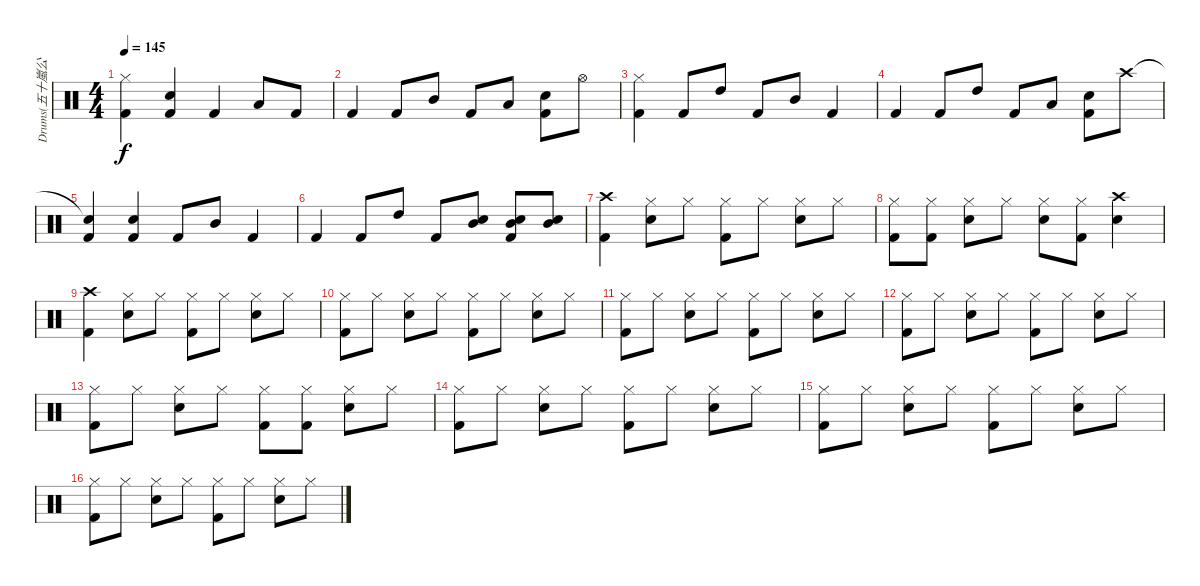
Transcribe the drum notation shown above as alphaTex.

\track ("Drums(五十嵐公太)" "Drums(五十嵐公") {instrument percussion}
\staff {score}
\articulation defaults
\ts (4 4)
\tempo 145
\clef neutral
\ks c
("Hi-Hat (closed)" "Kick (hit) 2").4{dy f} ("Snare (hit) 2" "Kick (hit) 2").4 "Kick (hit) 2".4 "Low Tom (hit)".8 "Kick (hit) 2".8 |
"Kick (hit) 2".4 "Kick (hit) 2".8 "Mid Tom (hit)".8 "Kick (hit) 2".8 "Low Tom (hit)".8 ("Snare (hit) 2" "Kick (hit) 2").8 "Hi-Hat (open)".8 |
("Hi-Hat (closed)" "Kick (hit) 2").4 "Kick (hit) 2".8 "High Tom (hit)".8 "Kick (hit) 2".8 "Mid Tom (hit)".8 "Kick (hit) 2".4 |
"Kick (hit) 2".4 "Kick (hit) 2".8 "High Tom (hit)".8 "Kick (hit) 2".8 "Low Tom (hit)".8 ("Snare (hit) 2" "Kick (hit) 2").8 "Crash high (hit)".8 |
("Snare (hit)"{t} "Kick (hit) 2").4 ("Snare (hit) 2" "Kick (hit) 2").4 "Kick (hit) 2".8 "Mid Tom (hit)".8 "Kick (hit) 2".4 |
"Kick (hit) 2".4 "Kick (hit) 2".8 "High Tom (hit)".8 "Kick (hit) 2".8 ("Snare (hit) 2" "Mid Tom (hit)").8 ("Snare (hit) 2" "Mid Tom (hit)" "Kick (hit) 2").8 ("Mid Tom (hit)" "Snare (hit) 2").8 |
("Crash high (hit)" "Kick (hit) 2").4 ("Hi-Hat (closed)" "Snare (hit) 2").8 "Hi-Hat (closed)".8 ("Hi-Hat (closed)" "Kick (hit) 2").8 "Hi-Hat (closed)".8 ("Hi-Hat (closed)" "Snare (hit) 2").8 "Hi-Hat (closed)".8 |
("Hi-Hat (closed)" "Kick (hit) 2").8 ("Hi-Hat (closed)" "Kick (hit) 2").8 ("Hi-Hat (closed)" "Snare (hit) 2").8 "Hi-Hat (closed)".8 ("Hi-Hat (closed)" "Snare (hit) 2").8 ("Hi-Hat (closed)" "Kick (hit) 2").8 ("Crash high (hit)" "Snare (hit) 2").4 |
("Crash high (hit)" "Kick (hit) 2").4 ("Hi-Hat (closed)" "Snare (hit) 2").8 "Hi-Hat (closed)".8 ("Hi-Hat (closed)" "Kick (hit) 2").8 "Hi-Hat (closed)".8 ("Hi-Hat (closed)" "Snare (hit) 2").8 "Hi-Hat (closed)".8 |
("Hi-Hat (closed)" "Kick (hit) 2").8 "Hi-Hat (closed)".8 ("Hi-Hat (closed)" "Snare (hit) 2").8 "Hi-Hat (closed)".8 ("Hi-Hat (closed)" "Kick (hit) 2").8 "Hi-Hat (closed)".8 ("Hi-Hat (closed)" "Snare (hit) 2").8 "Hi-Hat (closed)".8 |
("Hi-Hat (closed)" "Kick (hit) 2").8 "Hi-Hat (closed)".8 ("Hi-Hat (closed)" "Snare (hit) 2").8 "Hi-Hat (closed)".8 ("Hi-Hat (closed)" "Kick (hit) 2").8 "Hi-Hat (closed)".8 ("Hi-Hat (closed)" "Snare (hit) 2").8 "Hi-Hat (closed)".8 |
("Hi-Hat (closed)" "Kick (hit) 2").8 "Hi-Hat (closed)".8 ("Hi-Hat (closed)" "Snare (hit) 2").8 "Hi-Hat (closed)".8 ("Hi-Hat (closed)" "Kick (hit) 2").8 "Hi-Hat (closed)".8 ("Hi-Hat (closed)" "Snare (hit) 2").8 "Hi-Hat (closed)".8 |
("Hi-Hat (closed)" "Kick (hit) 2").8 "Hi-Hat (closed)".8 ("Hi-Hat (closed)" "Snare (hit) 2").8 "Hi-Hat (closed)".8 ("Hi-Hat (closed)" "Kick (hit) 2").8 ("Hi-Hat (closed)" "Kick (hit) 2").8 ("Hi-Hat (closed)" "Snare (hit) 2").8 "Hi-Hat (closed)".8 |
("Hi-Hat (closed)" "Kick (hit) 2").8 "Hi-Hat (closed)".8 ("Hi-Hat (closed)" "Snare (hit) 2").8 "Hi-Hat (closed)".8 ("Hi-Hat (closed)" "Kick (hit) 2").8 "Hi-Hat (closed)".8 ("Hi-Hat (closed)" "Snare (hit) 2").8 "Hi-Hat (closed)".8 |
("Hi-Hat (closed)" "Kick (hit) 2").8 "Hi-Hat (closed)".8 ("Hi-Hat (closed)" "Snare (hit) 2").8 "Hi-Hat (closed)".8 ("Hi-Hat (closed)" "Kick (hit) 2").8 "Hi-Hat (closed)".8 ("Hi-Hat (closed)" "Snare (hit) 2").8 "Hi-Hat (closed)".8 |
("Hi-Hat (closed)" "Kick (hit) 2").8 "Hi-Hat (closed)".8 ("Hi-Hat (closed)" "Snare (hit) 2").8 "Hi-Hat (closed)".8 ("Hi-Hat (closed)" "Kick (hit) 2").8 "Hi-Hat (closed)".8 ("Hi-Hat (closed)" "Snare (hit) 2").8 "Hi-Hat (closed)".8
